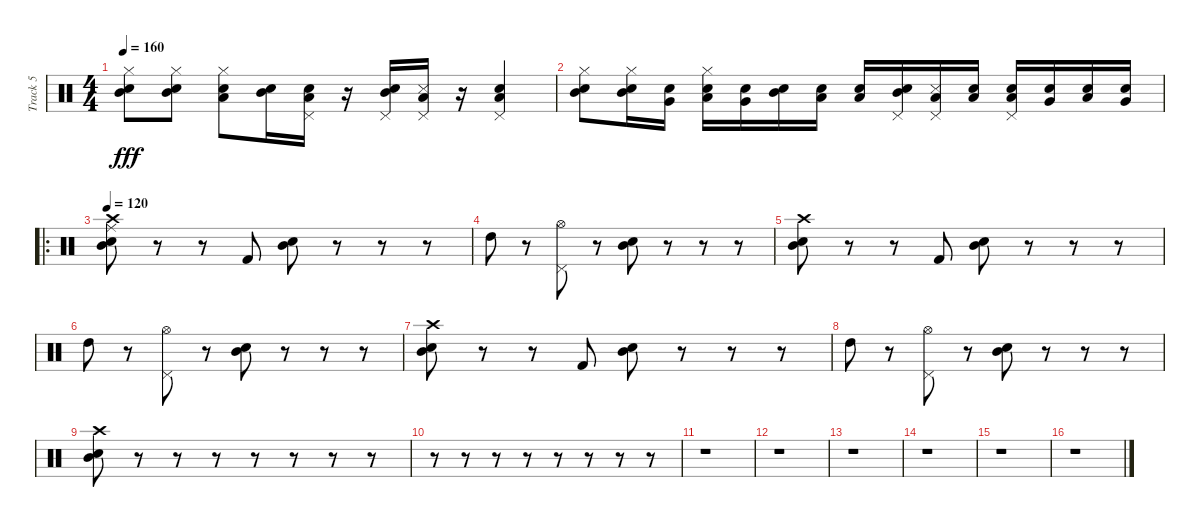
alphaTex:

\track ("Track 5" "Track 5") {instrument percussion}
\staff {score}
\articulation defaults
\ts (4 4)
\tempo 160
\clef neutral
\ks c
("Hi-Hat (closed)" "Electric Snare (hit)" "Mid Tom (hit)").8{dy fff} ("Hi-Hat (closed)" "Electric Snare (hit)" "Mid Tom (hit)").8 ("Hi-Hat (closed)" "Snare (hit) 2" "Low Tom (hit)").8 ("Electric Snare (hit)" "Mid Tom (hit)").16 ("Low Tom (hit)" "Electric Snare (hit)" "Pedal Hi-Hat (hit)").16 r.16 ("Electric Snare (hit)" "Mid Tom (hit)" "Pedal Hi-Hat (hit)").16 ("Pedal Hi-Hat (hit)" "Low Tom (hit)" "Snare (side stick) 3").16 r.16 ("Pedal Hi-Hat (hit)" "Low Tom (hit)" "Snare (hit) 2").4 |
("Hi-Hat (closed)" "Electric Snare (hit)" "Mid Tom (hit)").8 ("Hi-Hat (closed)" "Electric Snare (hit)" "Mid Tom (hit)").16 ("Very Low Tom (hit)" "Electric Snare (hit)").16 ("Hi-Hat (closed)" "Snare (hit) 2" "Low Tom (hit)").16 ("Electric Snare (hit)" "Very Low Tom (hit)").16 ("Electric Snare (hit)" "Mid Tom (hit)").16 ("Low Tom (hit)" "Electric Snare (hit)").16 ("Low Tom (hit)" "Electric Snare (hit)").16 ("Electric Snare (hit)" "Mid Tom (hit)" "Pedal Hi-Hat (hit)").16 ("Pedal Hi-Hat (hit)" "Low Tom (hit)" "Snare (side stick) 3").16 ("Low Tom (hit)" "Electric Snare (hit)").16 ("Pedal Hi-Hat (hit)" "Low Tom (hit)" "Snare (hit) 2").16 ("Very Low Tom (hit)" "Snare (hit) 2").16 ("Low Tom (hit)" "Electric Snare (hit)").16 ("Very Low Tom (hit)" "Snare (hit) 2").16 |
\ro
\tempo 120
("Crash high (hit)" "Mid Tom (hit)" "Snare (hit) 2" "Ride (middle)").8 r.8 r.8 "Kick (hit) 2".8 ("Mid Tom (hit)" "Snare (hit) 2").8 r.8 r.8 r.8 |
"High Tom (hit)".8 r.8 ("Hi-Hat (open)" "Pedal Hi-Hat (hit)").8 r.8 ("Mid Tom (hit)" "Snare (hit) 2").8 r.8 r.8 r.8 |
("Crash high (hit)" "Mid Tom (hit)" "Snare (hit) 2").8 r.8 r.8 "Kick (hit) 2".8 ("Mid Tom (hit)" "Snare (hit) 2").8 r.8 r.8 r.8 |
"High Tom (hit)".8 r.8 ("Hi-Hat (open)" "Pedal Hi-Hat (hit)").8 r.8 ("Mid Tom (hit)" "Snare (hit) 2").8 r.8 r.8 r.8 |
("Crash high (hit)" "Mid Tom (hit)" "Snare (hit) 2").8 r.8 r.8 "Kick (hit) 2".8 ("Mid Tom (hit)" "Snare (hit) 2").8 r.8 r.8 r.8 |
"High Tom (hit)".8 r.8 ("Hi-Hat (open)" "Pedal Hi-Hat (hit)").8 r.8 ("Mid Tom (hit)" "Snare (hit) 2").8 r.8 r.8 r.8 |
("Crash high (hit)" "Mid Tom (hit)" "Snare (hit) 2").8 r.8 r.8 r.8 r.8 r.8 r.8 r.8 |
r.8 r.8 r.8 r.8 r.8 r.8 r.8 r.8 |
r.1 |
r.1 |
r.1 |
r.1 |
r.1 |
r.1
